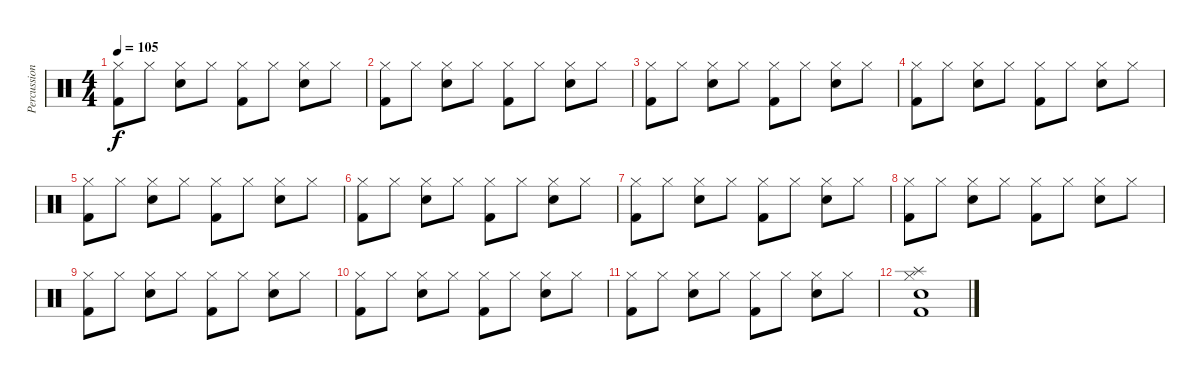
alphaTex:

\track ("Percussions" "Percussion") {instrument percussion}
\staff {score}
\articulation defaults
\ts (4 4)
\tempo 105
\clef neutral
\ks c
("Hi-Hat (closed)" "Kick (hit) 2").8{dy f} "Hi-Hat (closed)".8 ("Hi-Hat (closed)" "Electric Snare (hit)").8 "Hi-Hat (closed)".8 ("Hi-Hat (closed)" "Kick (hit) 2").8 "Hi-Hat (closed)".8 ("Hi-Hat (closed)" "Electric Snare (hit)").8 "Hi-Hat (closed)".8 |
("Hi-Hat (closed)" "Kick (hit) 2").8 "Hi-Hat (closed)".8 ("Hi-Hat (closed)" "Electric Snare (hit)").8 "Hi-Hat (closed)".8 ("Hi-Hat (closed)" "Kick (hit) 2").8 "Hi-Hat (closed)".8 ("Hi-Hat (closed)" "Electric Snare (hit)").8 "Hi-Hat (closed)".8 |
("Hi-Hat (closed)" "Kick (hit) 2").8 "Hi-Hat (closed)".8 ("Hi-Hat (closed)" "Electric Snare (hit)").8 "Hi-Hat (closed)".8 ("Hi-Hat (closed)" "Kick (hit) 2").8 "Hi-Hat (closed)".8 ("Hi-Hat (closed)" "Electric Snare (hit)").8 "Hi-Hat (closed)".8 |
("Hi-Hat (closed)" "Kick (hit) 2").8 "Hi-Hat (closed)".8 ("Hi-Hat (closed)" "Electric Snare (hit)").8 "Hi-Hat (closed)".8 ("Hi-Hat (closed)" "Kick (hit) 2").8 "Hi-Hat (closed)".8 ("Hi-Hat (closed)" "Electric Snare (hit)").8 "Hi-Hat (closed)".8 |
("Hi-Hat (closed)" "Kick (hit) 2").8 "Hi-Hat (closed)".8 ("Hi-Hat (closed)" "Electric Snare (hit)").8 "Hi-Hat (closed)".8 ("Hi-Hat (closed)" "Kick (hit) 2").8 "Hi-Hat (closed)".8 ("Hi-Hat (closed)" "Electric Snare (hit)").8 "Hi-Hat (closed)".8 |
("Hi-Hat (closed)" "Kick (hit) 2").8 "Hi-Hat (closed)".8 ("Hi-Hat (closed)" "Electric Snare (hit)").8 "Hi-Hat (closed)".8 ("Hi-Hat (closed)" "Kick (hit) 2").8 "Hi-Hat (closed)".8 ("Hi-Hat (closed)" "Electric Snare (hit)").8 "Hi-Hat (closed)".8 |
("Hi-Hat (closed)" "Kick (hit) 2").8 "Hi-Hat (closed)".8 ("Hi-Hat (closed)" "Electric Snare (hit)").8 "Hi-Hat (closed)".8 ("Hi-Hat (closed)" "Kick (hit) 2").8 "Hi-Hat (closed)".8 ("Hi-Hat (closed)" "Electric Snare (hit)").8 "Hi-Hat (closed)".8 |
("Hi-Hat (closed)" "Kick (hit) 2").8 "Hi-Hat (closed)".8 ("Hi-Hat (closed)" "Electric Snare (hit)").8 "Hi-Hat (closed)".8 ("Hi-Hat (closed)" "Kick (hit) 2").8 "Hi-Hat (closed)".8 ("Hi-Hat (closed)" "Electric Snare (hit)").8 "Hi-Hat (closed)".8 |
("Hi-Hat (closed)" "Kick (hit) 2").8 "Hi-Hat (closed)".8 ("Hi-Hat (closed)" "Electric Snare (hit)").8 "Hi-Hat (closed)".8 ("Hi-Hat (closed)" "Kick (hit) 2").8 "Hi-Hat (closed)".8 ("Hi-Hat (closed)" "Electric Snare (hit)").8 "Hi-Hat (closed)".8 |
("Hi-Hat (closed)" "Kick (hit) 2").8 "Hi-Hat (closed)".8 ("Hi-Hat (closed)" "Electric Snare (hit)").8 "Hi-Hat (closed)".8 ("Hi-Hat (closed)" "Kick (hit) 2").8 "Hi-Hat (closed)".8 ("Hi-Hat (closed)" "Electric Snare (hit)").8 "Hi-Hat (closed)".8 |
("Hi-Hat (closed)" "Kick (hit) 2").8 "Hi-Hat (closed)".8 ("Hi-Hat (closed)" "Electric Snare (hit)").8 "Hi-Hat (closed)".8 ("Hi-Hat (closed)" "Kick (hit) 2").8 "Hi-Hat (closed)".8 ("Hi-Hat (closed)" "Electric Snare (hit)").8 "Hi-Hat (closed)".8 |
("Splash (hit)" "Kick (hit) 2" "Hi-Hat (closed)" "Electric Snare (hit)").1
